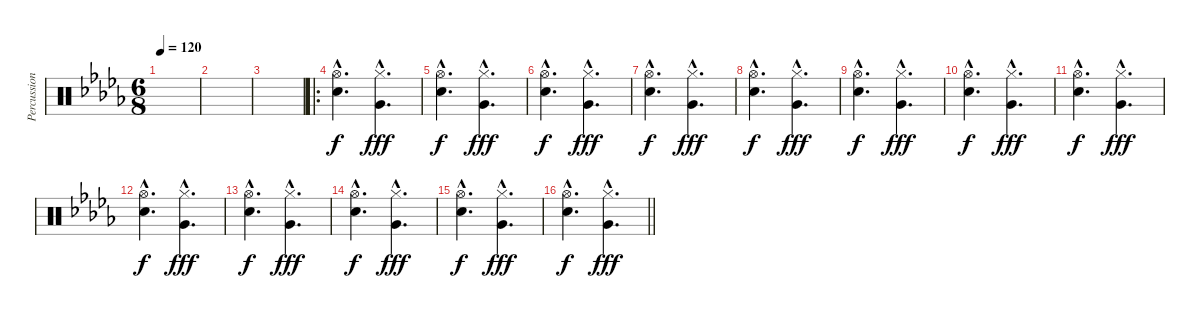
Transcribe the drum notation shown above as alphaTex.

\track ("Percussions" "Percussion") {instrument percussion}
\staff {score}
\articulation defaults
\ts (6 8)
\tempo 120
\clef neutral
\ks db
|
|
|
\ro
("Hi-Hat (open)"{hac} "Snare (hit) 2"{hac}).4{d} ("Hi-Hat (closed)"{hac} "Very Low Tom (hit)"{hac}).4{d dy fff} |
("Hi-Hat (open)"{hac} "Snare (hit) 2"{hac}).4{d dy f} ("Hi-Hat (closed)"{hac} "Very Low Tom (hit)"{hac}).4{d dy fff} |
("Hi-Hat (open)"{hac} "Snare (hit) 2"{hac}).4{d dy f} ("Hi-Hat (closed)"{hac} "Very Low Tom (hit)"{hac}).4{d dy fff} |
("Hi-Hat (open)"{hac} "Snare (hit) 2"{hac}).4{d dy f} ("Hi-Hat (closed)"{hac} "Very Low Tom (hit)"{hac}).4{d dy fff} |
("Hi-Hat (open)"{hac} "Snare (hit) 2"{hac}).4{d dy f} ("Hi-Hat (closed)"{hac} "Very Low Tom (hit)"{hac}).4{d dy fff} |
("Hi-Hat (open)"{hac} "Snare (hit) 2"{hac}).4{d dy f} ("Hi-Hat (closed)"{hac} "Very Low Tom (hit)"{hac}).4{d dy fff} |
("Hi-Hat (open)"{hac} "Snare (hit) 2"{hac}).4{d dy f} ("Hi-Hat (closed)"{hac} "Very Low Tom (hit)"{hac}).4{d dy fff} |
("Hi-Hat (open)"{hac} "Snare (hit) 2"{hac}).4{d dy f} ("Hi-Hat (closed)"{hac} "Very Low Tom (hit)"{hac}).4{d dy fff} |
("Hi-Hat (open)"{hac} "Snare (hit) 2"{hac}).4{d dy f} ("Hi-Hat (closed)"{hac} "Very Low Tom (hit)"{hac}).4{d dy fff} |
("Hi-Hat (open)"{hac} "Snare (hit) 2"{hac}).4{d dy f} ("Hi-Hat (closed)"{hac} "Very Low Tom (hit)"{hac}).4{d dy fff} |
("Hi-Hat (open)"{hac} "Snare (hit) 2"{hac}).4{d dy f} ("Hi-Hat (closed)"{hac} "Very Low Tom (hit)"{hac}).4{d dy fff} |
("Hi-Hat (open)"{hac} "Snare (hit) 2"{hac}).4{d dy f} ("Hi-Hat (closed)"{hac} "Very Low Tom (hit)"{hac}).4{d dy fff} |
\barLineRight lightlight
("Hi-Hat (open)"{hac} "Snare (hit) 2"{hac}).4{d dy f} ("Hi-Hat (closed)"{hac} "Very Low Tom (hit)"{hac}).4{d dy fff}
